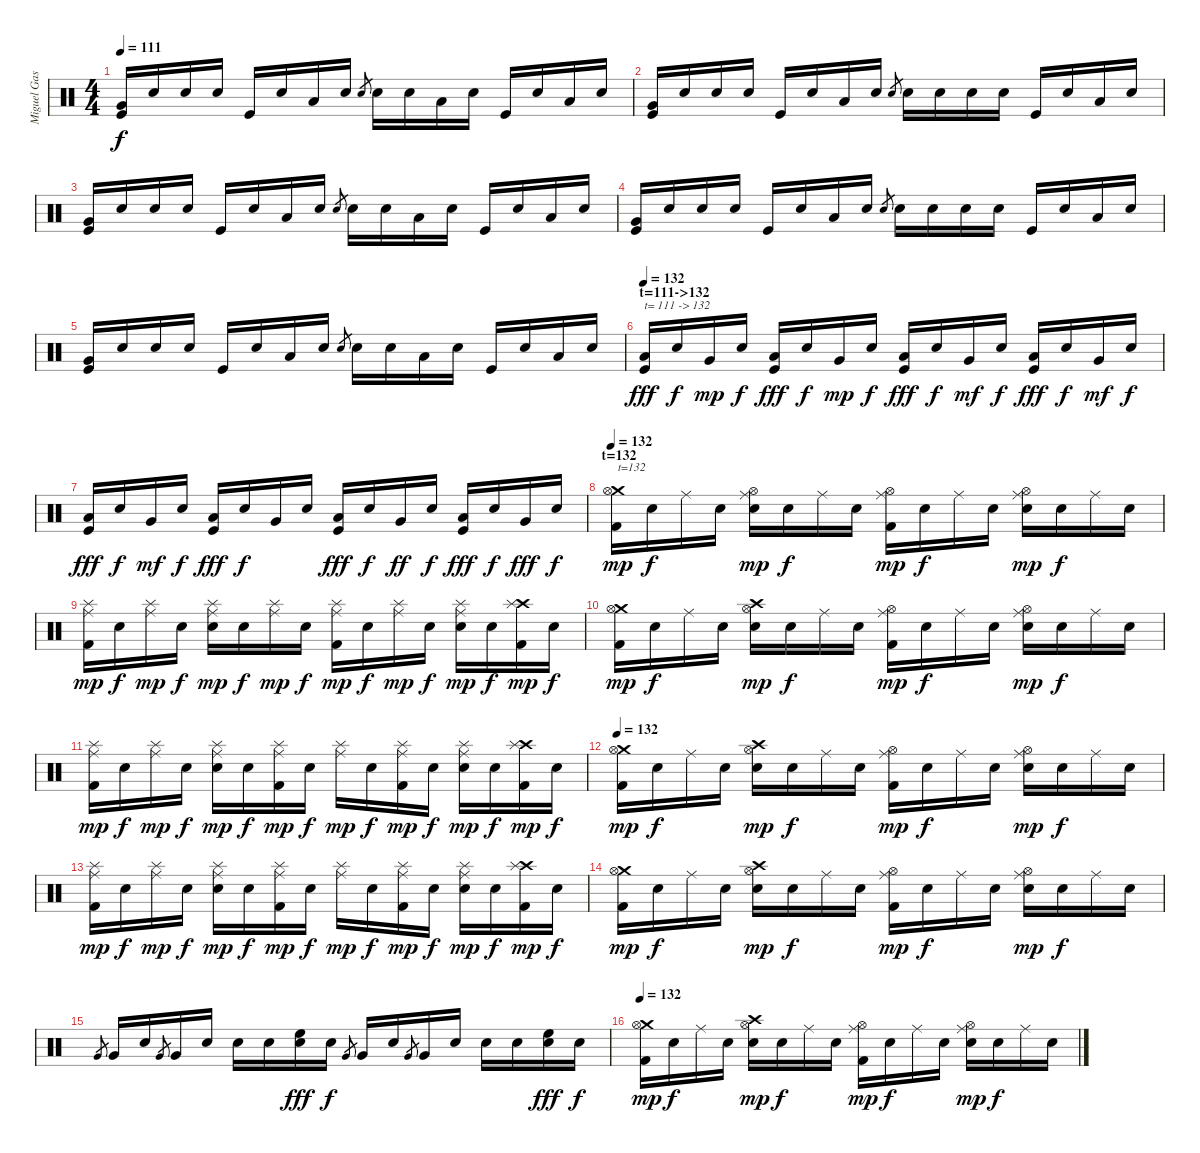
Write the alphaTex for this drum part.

\track ("Miguel Gaspar - Drums" "Miguel Gas") {instrument percussion}
\staff {score}
\articulation defaults
\ts (4 4)
\tempo 111
\clef neutral
\ks c
("Very Low Tom (hit)" "Kick (hit)").16{dy f} "Snare (hit)".16 "Snare (hit)".16 "Snare (hit)".16 "Kick (hit)".16 "Snare (hit)".16 "Low Tom (hit)".16 "Snare (hit)".16 "Electric Snare (hit)".8{gr} "Electric Snare (hit)".16 "Snare (hit)".16 "Low Tom (hit)".16 "Snare (hit)".16 "Kick (hit)".16 "Snare (hit)".16 "Low Tom (hit)".16 "Snare (hit)".16 |
("Very Low Tom (hit)" "Kick (hit)").16 "Snare (hit)".16 "Snare (hit)".16 "Snare (hit)".16 "Kick (hit)".16 "Snare (hit)".16 "Low Tom (hit)".16 "Snare (hit)".16 "Electric Snare (hit)".8{gr} "Electric Snare (hit)".16 "Snare (hit)".16 "Snare (hit)".16 "Snare (hit)".16 "Kick (hit)".16 "Snare (hit)".16 "Low Tom (hit)".16 "Snare (hit)".16 |
("Very Low Tom (hit)" "Kick (hit)").16 "Snare (hit)".16 "Snare (hit)".16 "Snare (hit)".16 "Kick (hit)".16 "Snare (hit)".16 "Low Tom (hit)".16 "Snare (hit)".16 "Electric Snare (hit)".8{gr} "Electric Snare (hit)".16 "Snare (hit)".16 "Low Tom (hit)".16 "Snare (hit)".16 "Kick (hit)".16 "Snare (hit)".16 "Low Tom (hit)".16 "Snare (hit)".16 |
("Very Low Tom (hit)" "Kick (hit)").16 "Snare (hit)".16 "Snare (hit)".16 "Snare (hit)".16 "Kick (hit)".16 "Snare (hit)".16 "Low Tom (hit)".16 "Snare (hit)".16 "Electric Snare (hit)".8{gr} "Electric Snare (hit)".16 "Snare (hit)".16 "Snare (hit)".16 "Snare (hit)".16 "Kick (hit)".16 "Snare (hit)".16 "Low Tom (hit)".16 "Snare (hit)".16 |
("Very Low Tom (hit)" "Kick (hit)").16 "Snare (hit)".16 "Snare (hit)".16 "Snare (hit)".16 "Kick (hit)".16 "Snare (hit)".16 "Low Tom (hit)".16 "Snare (hit)".16 "Electric Snare (hit)".8{gr} "Electric Snare (hit)".16 "Snare (hit)".16 "Low Tom (hit)".16 "Snare (hit)".16 "Kick (hit)".16 "Snare (hit)".16 "Low Tom (hit)".16 "Snare (hit)".16 |
\section ("" "t=111->132")
\tempo 132
("Low Floor Tom (hit)" "Kick (hit)").16{txt "t= 111 -> 132" dy fff volume 16 balance 8} "Snare (hit)".16{dy f} "Very Low Tom (hit)".16{dy mp} "Snare (hit)".16{dy f} ("Low Floor Tom (hit)" "Kick (hit)").16{dy fff} "Snare (hit)".16{dy f} "Very Low Tom (hit)".16{dy mp} "Snare (hit)".16{dy f} ("Low Floor Tom (hit)" "Kick (hit)").16{dy fff} "Snare (hit)".16{dy f} "Very Low Tom (hit)".16{dy mf} "Snare (hit)".16{dy f} ("Low Floor Tom (hit)" "Kick (hit)").16{dy fff} "Snare (hit)".16{dy f} "Very Low Tom (hit)".16{dy mf} "Snare (hit)".16{dy f} |
("Low Floor Tom (hit)" "Kick (hit)").16{dy fff} "Snare (hit)".16{dy f} "Very Low Tom (hit)".16{dy mf} "Snare (hit)".16{dy f} ("Low Floor Tom (hit)" "Kick (hit)").16{dy fff} "Snare (hit)".16{dy f} "Very Low Tom (hit)".16 "Snare (hit)".16 ("Low Floor Tom (hit)" "Kick (hit)").16{dy fff} "Snare (hit)".16{dy f} "Very Low Tom (hit)".16{dy ff} "Snare (hit)".16{dy f} ("Low Floor Tom (hit)" "Kick (hit)").16{dy fff} "Snare (hit)".16{dy f} "Very Low Tom (hit)".16{dy fff} "Snare (hit)".16{dy f} |
\section ("" "t=132")
\tempo 132
("Crash medium (hit)" "Hi-Hat (open)" "Kick (hit) 2").16{txt "t=132" dy mp volume 16 balance 8} "Snare (hit)".16{dy f} "Ride (middle)".16 "Snare (hit)".16 ("Ride (middle)" "Hi-Hat (open)" "Electric Snare (hit)").16{dy mp} "Snare (hit)".16{dy f} "Ride (middle)".16 "Snare (hit)".16 ("Ride (middle)" "Hi-Hat (open)" "Kick (hit) 2").16{dy mp} "Snare (hit)".16{dy f} "Ride (middle)".16 "Snare (hit)".16 ("Ride (middle)" "Hi-Hat (open)" "Electric Snare (hit)").16{dy mp} "Snare (hit)".16{dy f} "Ride (middle)".16 "Snare (hit)".16 |
("Ride (middle)" "Splash (hit)" "Kick (hit) 2").16{dy mp} "Snare (hit)".16{dy f} ("Ride (middle)" "Splash (hit)").16{dy mp} "Snare (hit)".16{dy f} ("Ride (middle)" "Splash (hit)" "Electric Snare (hit)").16{dy mp} "Snare (hit)".16{dy f} ("Ride (middle)" "Splash (hit)").16{dy mp} "Snare (hit)".16{dy f} ("Ride (middle)" "Splash (hit)" "Kick (hit) 2").16{dy mp} "Snare (hit)".16{dy f} ("Ride (middle)" "Splash (hit)").16{dy mp} "Snare (hit)".16{dy f} ("Ride (middle)" "Splash (hit)" "Electric Snare (hit)").16{dy mp} "Snare (hit)".16{dy f} ("Crash high (hit)" "Splash (hit)" "Kick (hit) 2").16{dy mp} "Snare (hit)".16{dy f} |
("Crash medium (hit)" "Hi-Hat (open)" "Kick (hit) 2").16{dy mp} "Snare (hit)".16{dy f} "Ride (middle)".16 "Snare (hit)".16 ("Crash high (hit)" "Hi-Hat (open)" "Electric Snare (hit)").16{dy mp} "Snare (hit)".16{dy f} "Ride (middle)".16 "Snare (hit)".16 ("Ride (middle)" "Hi-Hat (open)" "Kick (hit) 2").16{dy mp} "Snare (hit)".16{dy f} "Ride (middle)".16 "Snare (hit)".16 ("Ride (middle)" "Hi-Hat (open)" "Electric Snare (hit)").16{dy mp} "Snare (hit)".16{dy f} "Ride (middle)".16 "Snare (hit)".16 |
("Ride (middle)" "Splash (hit)" "Kick (hit) 2").16{dy mp} "Snare (hit)".16{dy f} ("Ride (middle)" "Splash (hit)").16{dy mp} "Snare (hit)".16{dy f} ("Ride (middle)" "Splash (hit)" "Electric Snare (hit)").16{dy mp} "Snare (hit)".16{dy f} ("Ride (middle)" "Splash (hit)" "Kick (hit) 2").16{dy mp} "Snare (hit)".16{dy f} ("Ride (middle)" "Splash (hit)").16{dy mp} "Snare (hit)".16{dy f} ("Ride (middle)" "Splash (hit)" "Kick (hit) 2").16{dy mp} "Snare (hit)".16{dy f} ("Ride (middle)" "Splash (hit)" "Electric Snare (hit)").16{dy mp} "Snare (hit)".16{dy f} ("Crash high (hit)" "Splash (hit)" "Kick (hit) 2").16{dy mp} "Snare (hit)".16{dy f} |
\tempo 132
("Crash medium (hit)" "Hi-Hat (open)" "Kick (hit) 2").16{dy mp volume 16 balance 8} "Snare (hit)".16{dy f} "Ride (middle)".16 "Snare (hit)".16 ("Crash high (hit)" "Hi-Hat (open)" "Electric Snare (hit)").16{dy mp} "Snare (hit)".16{dy f} "Ride (middle)".16 "Snare (hit)".16 ("Ride (middle)" "Hi-Hat (open)" "Kick (hit) 2").16{dy mp} "Snare (hit)".16{dy f} "Ride (middle)".16 "Snare (hit)".16 ("Ride (middle)" "Hi-Hat (open)" "Electric Snare (hit)").16{dy mp} "Snare (hit)".16{dy f} "Ride (middle)".16 "Snare (hit)".16 |
("Ride (middle)" "Splash (hit)" "Kick (hit) 2").16{dy mp} "Snare (hit)".16{dy f} ("Ride (middle)" "Splash (hit)").16{dy mp} "Snare (hit)".16{dy f} ("Ride (middle)" "Splash (hit)" "Electric Snare (hit)").16{dy mp} "Snare (hit)".16{dy f} ("Ride (middle)" "Splash (hit)" "Kick (hit) 2").16{dy mp} "Snare (hit)".16{dy f} ("Ride (middle)" "Splash (hit)").16{dy mp} "Snare (hit)".16{dy f} ("Ride (middle)" "Splash (hit)" "Kick (hit) 2").16{dy mp} "Snare (hit)".16{dy f} ("Ride (middle)" "Splash (hit)" "Electric Snare (hit)").16{dy mp} "Snare (hit)".16{dy f} ("Crash high (hit)" "Splash (hit)" "Kick (hit) 2").16{dy mp} "Snare (hit)".16{dy f} |
("Crash medium (hit)" "Hi-Hat (open)" "Kick (hit) 2").16{dy mp} "Snare (hit)".16{dy f} "Ride (middle)".16 "Snare (hit)".16 ("Crash high (hit)" "Hi-Hat (open)" "Electric Snare (hit)").16{dy mp} "Snare (hit)".16{dy f} "Ride (middle)".16 "Snare (hit)".16 ("Ride (middle)" "Hi-Hat (open)" "Kick (hit) 2").16{dy mp} "Snare (hit)".16{dy f} "Ride (middle)".16 "Snare (hit)".16 ("Ride (middle)" "Hi-Hat (open)" "Electric Snare (hit)").16{dy mp} "Snare (hit)".16{dy f} "Ride (middle)".16 "Snare (hit)".16 |
"Very Low Tom (hit)".8{gr} "Very Low Tom (hit)".16 "Snare (hit)".16 "Very Low Tom (hit)".8{gr} "Very Low Tom (hit)".16 "Snare (hit)".16 "Electric Snare (hit)".16 "Snare (hit)".16 ("Electric Snare (hit)" "High Floor Tom (hit)").16{dy fff} "Snare (hit)".16{dy f} "Very Low Tom (hit)".8{gr} "Very Low Tom (hit)".16 "Snare (hit)".16 "Very Low Tom (hit)".8{gr} "Very Low Tom (hit)".16 "Snare (hit)".16 "Electric Snare (hit)".16 "Snare (hit)".16 ("Electric Snare (hit)" "High Floor Tom (hit)").16{dy fff} "Snare (hit)".16{dy f} |
\section ("" "")
\tempo 132
("Crash medium (hit)" "Hi-Hat (open)" "Kick (hit) 2").16{dy mp volume 16 balance 8} "Snare (hit)".16{dy f} "Ride (middle)".16 "Snare (hit)".16 ("Crash high (hit)" "Hi-Hat (open)" "Electric Snare (hit)").16{dy mp} "Snare (hit)".16{dy f} "Ride (middle)".16 "Snare (hit)".16 ("Ride (middle)" "Hi-Hat (open)" "Kick (hit) 2").16{dy mp} "Snare (hit)".16{dy f} "Ride (middle)".16 "Snare (hit)".16 ("Ride (middle)" "Hi-Hat (open)" "Electric Snare (hit)").16{dy mp} "Snare (hit)".16{dy f} "Ride (middle)".16 "Snare (hit)".16
